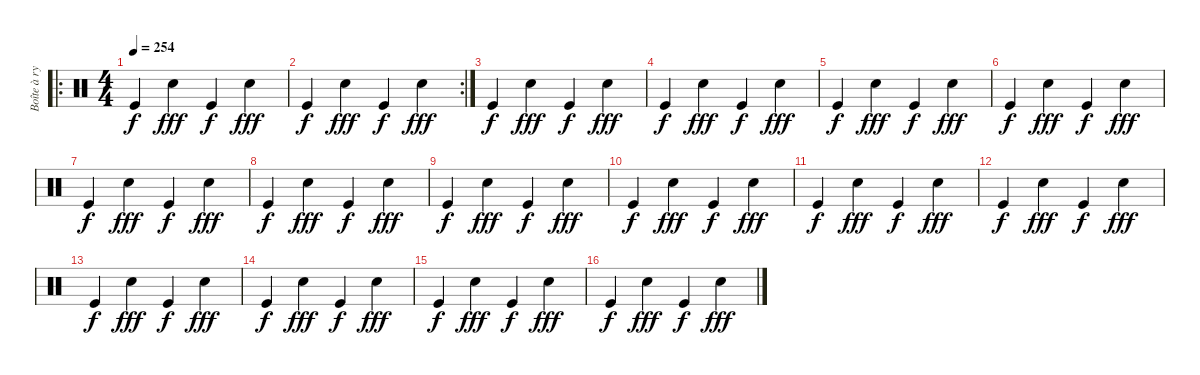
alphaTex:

\track ("Boîte à rytmes" "Boîte à ry") {instrument percussion}
\staff {score}
\articulation defaults
\ro
\ts (4 4)
\tempo 254
\clef neutral
\ks c "Kick (hit)".4{dy f} "Snare (hit) 2".4{dy fff} "Kick (hit)".4{dy f} "Snare (hit) 2".4{dy fff}
|
\rc 2 "Kick (hit)".4{dy f} "Snare (hit) 2".4{dy fff} "Kick (hit)".4{dy f} "Snare (hit) 2".4{dy fff}
|
"Kick (hit)".4{dy f} "Snare (hit) 2".4{dy fff} "Kick (hit)".4{dy f} "Snare (hit) 2".4{dy fff} |
"Kick (hit)".4{dy f} "Snare (hit) 2".4{dy fff} "Kick (hit)".4{dy f} "Snare (hit) 2".4{dy fff} |
"Kick (hit)".4{dy f} "Snare (hit) 2".4{dy fff} "Kick (hit)".4{dy f} "Snare (hit) 2".4{dy fff} |
"Kick (hit)".4{dy f} "Snare (hit) 2".4{dy fff} "Kick (hit)".4{dy f} "Snare (hit) 2".4{dy fff} |
"Kick (hit)".4{dy f} "Snare (hit) 2".4{dy fff} "Kick (hit)".4{dy f} "Snare (hit) 2".4{dy fff} |
"Kick (hit)".4{dy f} "Snare (hit) 2".4{dy fff} "Kick (hit)".4{dy f} "Snare (hit) 2".4{dy fff} |
"Kick (hit)".4{dy f} "Snare (hit) 2".4{dy fff} "Kick (hit)".4{dy f} "Snare (hit) 2".4{dy fff} |
"Kick (hit)".4{dy f} "Snare (hit) 2".4{dy fff} "Kick (hit)".4{dy f} "Snare (hit) 2".4{dy fff} |
"Kick (hit)".4{dy f} "Snare (hit) 2".4{dy fff} "Kick (hit)".4{dy f} "Snare (hit) 2".4{dy fff} |
"Kick (hit)".4{dy f} "Snare (hit) 2".4{dy fff} "Kick (hit)".4{dy f} "Snare (hit) 2".4{dy fff} |
"Kick (hit)".4{dy f} "Snare (hit) 2".4{dy fff} "Kick (hit)".4{dy f} "Snare (hit) 2".4{dy fff} |
"Kick (hit)".4{dy f} "Snare (hit) 2".4{dy fff} "Kick (hit)".4{dy f} "Snare (hit) 2".4{dy fff} |
"Kick (hit)".4{dy f} "Snare (hit) 2".4{dy fff} "Kick (hit)".4{dy f} "Snare (hit) 2".4{dy fff} |
"Kick (hit)".4{dy f} "Snare (hit) 2".4{dy fff} "Kick (hit)".4{dy f} "Snare (hit) 2".4{dy fff}
